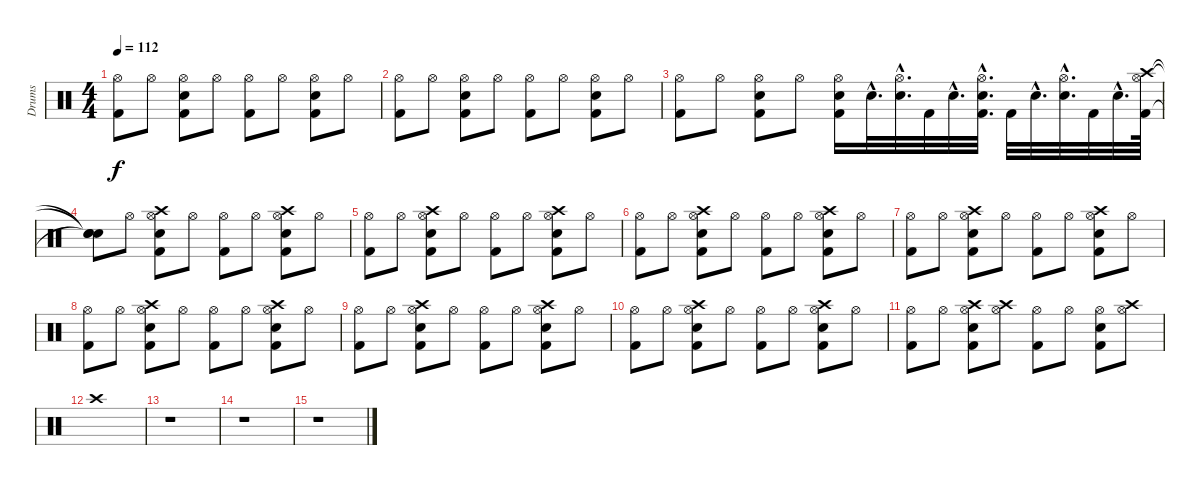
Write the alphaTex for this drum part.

\track ("Drums" "Drums") {instrument percussion}
\staff {score}
\articulation defaults
\ts (4 4)
\tempo 112
\clef neutral
\ks c
("Hi-Hat (open)" "Kick (hit) 2").8{dy f} "Hi-Hat (open)".8 ("Hi-Hat (open)" "Kick (hit) 2" "Snare (hit) 2").8 "Hi-Hat (open)".8 ("Kick (hit) 2" "Hi-Hat (open)").8 "Hi-Hat (open)".8 ("Kick (hit) 2" "Snare (hit) 2" "Hi-Hat (open)").8 "Hi-Hat (open)".8 |
("Hi-Hat (open)" "Kick (hit) 2").8 "Hi-Hat (open)".8 ("Hi-Hat (open)" "Kick (hit) 2" "Snare (hit) 2").8 "Hi-Hat (open)".8 ("Kick (hit) 2" "Hi-Hat (open)").8 "Hi-Hat (open)".8 ("Kick (hit) 2" "Snare (hit) 2" "Hi-Hat (open)").8 "Hi-Hat (open)".8 |
("Kick (hit) 2" "Hi-Hat (open)").8 "Hi-Hat (open)".8 ("Hi-Hat (open)" "Snare (hit) 2" "Kick (hit) 2").8 "Hi-Hat (open)".8 ("Kick (hit) 2" "Hi-Hat (open)" "Snare (hit) 2").16 "Snare (hit) 2"{hac}.32{d} ("Hi-Hat (open)"{hac} "Snare (hit) 2"{hac}).32{d} "Kick (hit) 2".32 "Snare (hit) 2"{hac}.32{d} ("Snare (hit) 2"{hac} "Hi-Hat (open)"{hac} "Kick (hit) 2"{hac}).32{d} "Kick (hit) 2".32 "Snare (hit) 2"{hac}.32{d} ("Hi-Hat (open)"{hac} "Snare (hit) 2"{hac}).32{d} "Kick (hit) 2".32 "Snare (hit) 2"{hac}.32{d} ("Hi-Hat (open)" "Crash high (hit)" "Kick (hit) 2").64 |
("Snare (hit)"{t} "Snare (hit)"{t} "Snare (hit)"{t}).8 "Hi-Hat (open)".8 ("Hi-Hat (open)" "Kick (hit) 2" "Crash high (hit)" "Snare (hit) 2").8 "Hi-Hat (open)".8 ("Kick (hit) 2" "Hi-Hat (open)").8 "Hi-Hat (open)".8 ("Kick (hit) 2" "Crash high (hit)" "Hi-Hat (open)" "Snare (hit) 2").8 "Hi-Hat (open)".8 |
("Hi-Hat (open)" "Kick (hit) 2").8 "Hi-Hat (open)".8 ("Hi-Hat (open)" "Kick (hit) 2" "Snare (hit) 2" "Crash high (hit)").8 "Hi-Hat (open)".8 ("Kick (hit) 2" "Hi-Hat (open)").8 "Hi-Hat (open)".8 ("Kick (hit) 2" "Snare (hit) 2" "Hi-Hat (open)" "Crash high (hit)").8 "Hi-Hat (open)".8 |
("Hi-Hat (open)" "Kick (hit) 2").8 "Hi-Hat (open)".8 ("Hi-Hat (open)" "Kick (hit) 2" "Snare (hit) 2" "Crash high (hit)").8 "Hi-Hat (open)".8 ("Kick (hit) 2" "Hi-Hat (open)").8 "Hi-Hat (open)".8 ("Kick (hit) 2" "Snare (hit) 2" "Hi-Hat (open)" "Crash high (hit)").8 "Hi-Hat (open)".8 |
("Hi-Hat (open)" "Kick (hit) 2").8 "Hi-Hat (open)".8 ("Hi-Hat (open)" "Kick (hit) 2" "Snare (hit) 2" "Crash high (hit)").8 "Hi-Hat (open)".8 ("Kick (hit) 2" "Hi-Hat (open)").8 "Hi-Hat (open)".8 ("Kick (hit) 2" "Snare (hit) 2" "Hi-Hat (open)" "Crash high (hit)").8 "Hi-Hat (open)".8 |
("Hi-Hat (open)" "Kick (hit) 2").8 "Hi-Hat (open)".8 ("Hi-Hat (open)" "Kick (hit) 2" "Snare (hit) 2" "Crash high (hit)").8 "Hi-Hat (open)".8 ("Kick (hit) 2" "Hi-Hat (open)").8 "Hi-Hat (open)".8 ("Kick (hit) 2" "Snare (hit) 2" "Hi-Hat (open)" "Crash high (hit)").8 "Hi-Hat (open)".8 |
("Hi-Hat (open)" "Kick (hit) 2").8 "Hi-Hat (open)".8 ("Hi-Hat (open)" "Kick (hit) 2" "Snare (hit) 2" "Crash high (hit)").8 "Hi-Hat (open)".8 ("Kick (hit) 2" "Hi-Hat (open)").8 "Hi-Hat (open)".8 ("Kick (hit) 2" "Snare (hit) 2" "Hi-Hat (open)" "Crash high (hit)").8 "Hi-Hat (open)".8 |
("Hi-Hat (open)" "Kick (hit) 2").8 "Hi-Hat (open)".8 ("Hi-Hat (open)" "Kick (hit) 2" "Snare (hit) 2" "Crash high (hit)").8 "Hi-Hat (open)".8 ("Kick (hit) 2" "Hi-Hat (open)").8 "Hi-Hat (open)".8 ("Kick (hit) 2" "Snare (hit) 2" "Hi-Hat (open)" "Crash high (hit)").8 "Hi-Hat (open)".8 |
("Hi-Hat (open)" "Kick (hit) 2").8 "Hi-Hat (open)".8 ("Crash high (hit)" "Kick (hit) 2" "Hi-Hat (open)" "Snare (hit) 2").8 ("Crash high (hit)" "Hi-Hat (open)").8 ("Kick (hit) 2" "Hi-Hat (open)").8 "Hi-Hat (open)".8 ("Snare (hit) 2" "Kick (hit) 2" "Hi-Hat (open)").8 ("Hi-Hat (open)" "Crash high (hit)").8 |
"Crash high (hit)".1 |
r.1 |
r.1 |
r.1
